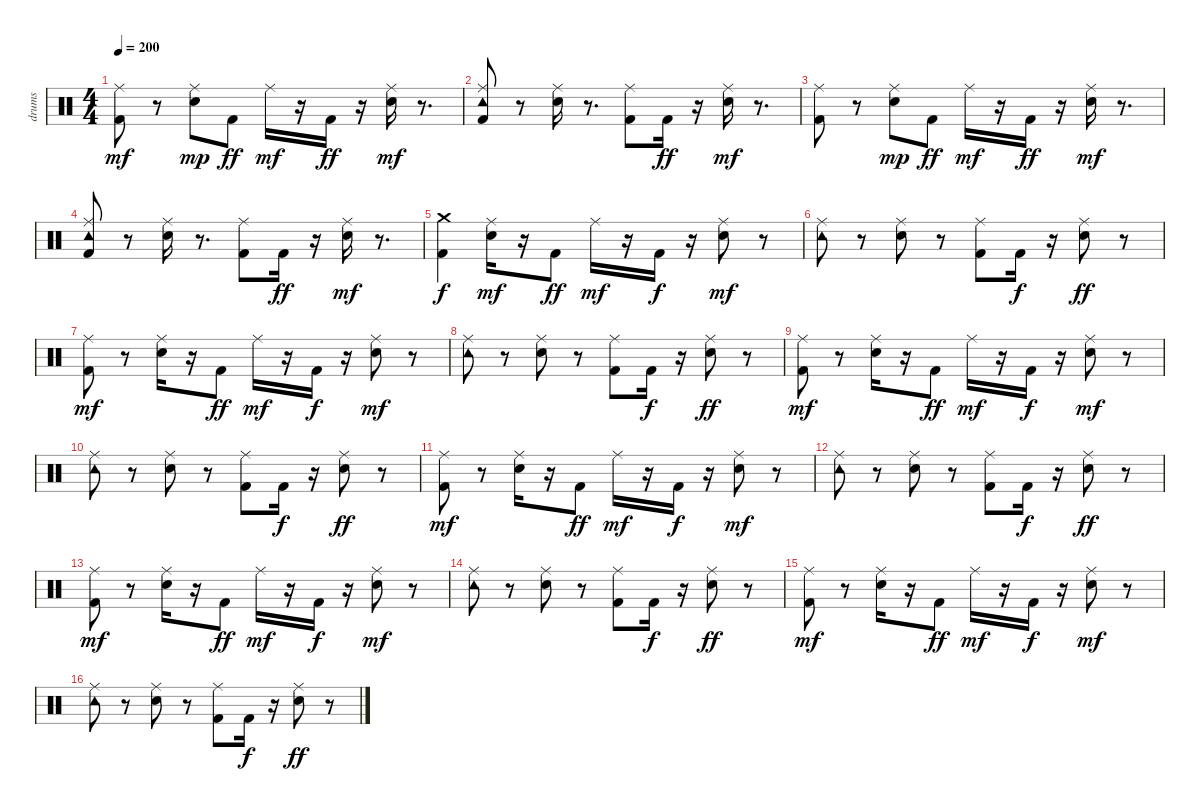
\track ("drums" "drums") {instrument percussion}
\staff {score}
\articulation defaults
\ts (4 4)
\tempo 200
\clef neutral
\ks c
("Kick (hit) 2" "Ride (middle)").8{dy mf} r.8 ("Snare (hit) 2" "Ride (middle)").8{dy mp} "Kick (hit) 2".8{dy ff} "Ride (middle)".16{dy mf} r.16 "Kick (hit) 2".16{dy ff} r.16 ("Snare (hit) 2" "Ride (middle)").16{dy mf} r.8{d} |
("Tambourine (hit)" "Kick (hit) 2" "Ride (middle)").8 r.8 ("Snare (hit) 2" "Ride (middle)").16 r.8{d} ("Kick (hit) 2" "Ride (middle)").8 "Kick (hit) 2".16{dy ff} r.16 ("Snare (hit) 2" "Ride (middle)").16{dy mf} r.8{d} |
("Kick (hit) 2" "Ride (middle)").8 r.8 ("Snare (hit) 2" "Ride (middle)").8{dy mp} "Kick (hit) 2".8{dy ff} "Ride (middle)".16{dy mf} r.16 "Kick (hit) 2".16{dy ff} r.16 ("Snare (hit) 2" "Ride (middle)").16{dy mf} r.8{d} |
("Tambourine (hit)" "Kick (hit) 2" "Ride (middle)").8 r.8 ("Snare (hit) 2" "Ride (middle)").16 r.8{d} ("Kick (hit) 2" "Ride (middle)").8 "Kick (hit) 2".16{dy ff} r.16 ("Snare (hit) 2" "Ride (middle)").16{dy mf} r.8{d} |
("Kick (hit) 2" "Crash medium (hit)").4{dy f} ("Snare (hit) 2" "Ride (middle)").16{dy mf} r.16 "Kick (hit) 2".8{dy ff} "Ride (middle)".16{dy mf} r.16 "Kick (hit) 2".16{dy f} r.16 ("Snare (hit) 2" "Ride (middle)").8{dy mf} r.8 |
("Tambourine (hit)" "Ride (middle)").8 r.8 ("Snare (hit) 2" "Ride (middle)").8 r.8 ("Kick (hit) 2" "Ride (middle)").8 "Kick (hit) 2".16{dy f} r.16 ("Snare (hit) 2" "Ride (middle)").8{dy ff} r.8 |
("Kick (hit) 2" "Ride (middle)").8{dy mf} r.8 ("Snare (hit) 2" "Ride (middle)").16 r.16 "Kick (hit) 2".8{dy ff} "Ride (middle)".16{dy mf} r.16 "Kick (hit) 2".16{dy f} r.16 ("Snare (hit) 2" "Ride (middle)").8{dy mf} r.8 |
("Tambourine (hit)" "Ride (middle)").8 r.8 ("Snare (hit) 2" "Ride (middle)").8 r.8 ("Kick (hit) 2" "Ride (middle)").8 "Kick (hit) 2".16{dy f} r.16 ("Snare (hit) 2" "Ride (middle)").8{dy ff} r.8 |
("Kick (hit) 2" "Ride (middle)").8{dy mf} r.8 ("Snare (hit) 2" "Ride (middle)").16 r.16 "Kick (hit) 2".8{dy ff} "Ride (middle)".16{dy mf} r.16 "Kick (hit) 2".16{dy f} r.16 ("Snare (hit) 2" "Ride (middle)").8{dy mf} r.8 |
("Tambourine (hit)" "Ride (middle)").8 r.8 ("Snare (hit) 2" "Ride (middle)").8 r.8 ("Kick (hit) 2" "Ride (middle)").8 "Kick (hit) 2".16{dy f} r.16 ("Snare (hit) 2" "Ride (middle)").8{dy ff} r.8 |
("Kick (hit) 2" "Ride (middle)").8{dy mf} r.8 ("Snare (hit) 2" "Ride (middle)").16 r.16 "Kick (hit) 2".8{dy ff} "Ride (middle)".16{dy mf} r.16 "Kick (hit) 2".16{dy f} r.16 ("Snare (hit) 2" "Ride (middle)").8{dy mf} r.8 |
("Tambourine (hit)" "Ride (middle)").8 r.8 ("Snare (hit) 2" "Ride (middle)").8 r.8 ("Kick (hit) 2" "Ride (middle)").8 "Kick (hit) 2".16{dy f} r.16 ("Snare (hit) 2" "Ride (middle)").8{dy ff} r.8 |
("Kick (hit) 2" "Ride (middle)").8{dy mf} r.8 ("Snare (hit) 2" "Ride (middle)").16 r.16 "Kick (hit) 2".8{dy ff} "Ride (middle)".16{dy mf} r.16 "Kick (hit) 2".16{dy f} r.16 ("Snare (hit) 2" "Ride (middle)").8{dy mf} r.8 |
("Tambourine (hit)" "Ride (middle)").8 r.8 ("Snare (hit) 2" "Ride (middle)").8 r.8 ("Kick (hit) 2" "Ride (middle)").8 "Kick (hit) 2".16{dy f} r.16 ("Snare (hit) 2" "Ride (middle)").8{dy ff} r.8 |
("Kick (hit) 2" "Ride (middle)").8{dy mf} r.8 ("Snare (hit) 2" "Ride (middle)").16 r.16 "Kick (hit) 2".8{dy ff} "Ride (middle)".16{dy mf} r.16 "Kick (hit) 2".16{dy f} r.16 ("Snare (hit) 2" "Ride (middle)").8{dy mf} r.8 |
("Tambourine (hit)" "Ride (middle)").8 r.8 ("Snare (hit) 2" "Ride (middle)").8 r.8 ("Kick (hit) 2" "Ride (middle)").8 "Kick (hit) 2".16{dy f} r.16 ("Snare (hit) 2" "Ride (middle)").8{dy ff} r.8
